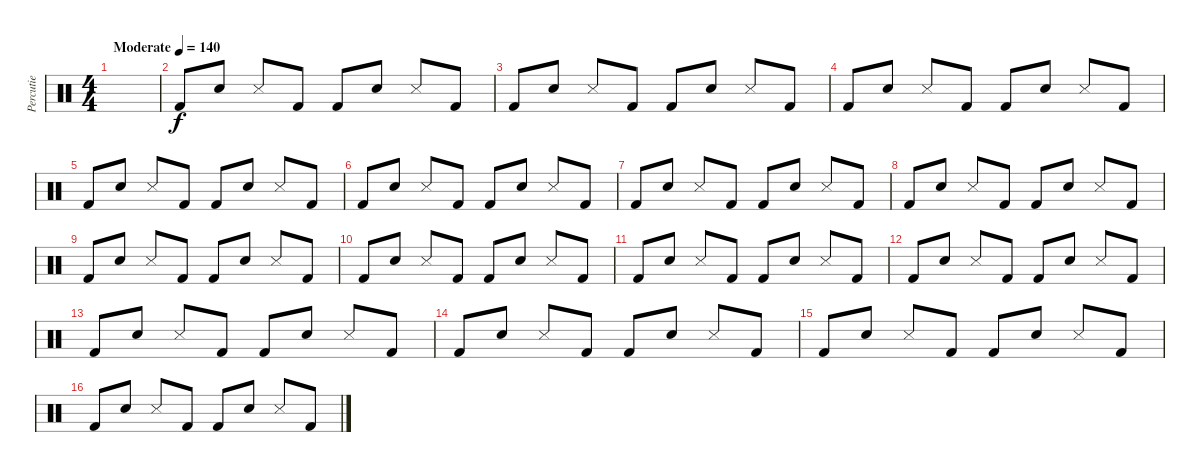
\track ("Percutie" "Percutie") {instrument percussion}
\staff {score}
\articulation defaults
\ts (4 4)
\tempo (140 "Moderate")
\clef neutral
\ks c
|
"Kick (hit) 2".8 "Electric Snare (hit)".8 "Snare (side stick) 3".8 "Kick (hit) 2".8 "Kick (hit) 2".8 "Electric Snare (hit)".8 "Snare (side stick) 3".8 "Kick (hit) 2".8 |
"Kick (hit) 2".8 "Electric Snare (hit)".8 "Snare (side stick) 3".8 "Kick (hit) 2".8 "Kick (hit) 2".8 "Electric Snare (hit)".8 "Snare (side stick) 3".8 "Kick (hit) 2".8 |
"Kick (hit) 2".8 "Electric Snare (hit)".8 "Snare (side stick) 3".8 "Kick (hit) 2".8 "Kick (hit) 2".8 "Electric Snare (hit)".8 "Snare (side stick) 3".8 "Kick (hit) 2".8 |
"Kick (hit) 2".8 "Electric Snare (hit)".8 "Snare (side stick) 3".8 "Kick (hit) 2".8 "Kick (hit) 2".8 "Electric Snare (hit)".8 "Snare (side stick) 3".8 "Kick (hit) 2".8 |
"Kick (hit) 2".8 "Electric Snare (hit)".8 "Snare (side stick) 3".8 "Kick (hit) 2".8 "Kick (hit) 2".8 "Electric Snare (hit)".8 "Snare (side stick) 3".8 "Kick (hit) 2".8 |
"Kick (hit) 2".8 "Electric Snare (hit)".8 "Snare (side stick) 3".8 "Kick (hit) 2".8 "Kick (hit) 2".8 "Electric Snare (hit)".8 "Snare (side stick) 3".8 "Kick (hit) 2".8 |
"Kick (hit) 2".8 "Electric Snare (hit)".8 "Snare (side stick) 3".8 "Kick (hit) 2".8 "Kick (hit) 2".8 "Electric Snare (hit)".8 "Snare (side stick) 3".8 "Kick (hit) 2".8 |
"Kick (hit) 2".8 "Electric Snare (hit)".8 "Snare (side stick) 3".8 "Kick (hit) 2".8 "Kick (hit) 2".8 "Electric Snare (hit)".8 "Snare (side stick) 3".8 "Kick (hit) 2".8 |
"Kick (hit) 2".8 "Electric Snare (hit)".8 "Snare (side stick) 3".8 "Kick (hit) 2".8 "Kick (hit) 2".8 "Electric Snare (hit)".8 "Snare (side stick) 3".8 "Kick (hit) 2".8 |
"Kick (hit) 2".8 "Electric Snare (hit)".8 "Snare (side stick) 3".8 "Kick (hit) 2".8 "Kick (hit) 2".8 "Electric Snare (hit)".8 "Snare (side stick) 3".8 "Kick (hit) 2".8 |
"Kick (hit) 2".8 "Electric Snare (hit)".8 "Snare (side stick) 3".8 "Kick (hit) 2".8 "Kick (hit) 2".8 "Electric Snare (hit)".8 "Snare (side stick) 3".8 "Kick (hit) 2".8 |
"Kick (hit) 2".8 "Electric Snare (hit)".8 "Snare (side stick) 3".8 "Kick (hit) 2".8 "Kick (hit) 2".8 "Electric Snare (hit)".8 "Snare (side stick) 3".8 "Kick (hit) 2".8 |
"Kick (hit) 2".8 "Electric Snare (hit)".8 "Snare (side stick) 3".8 "Kick (hit) 2".8 "Kick (hit) 2".8 "Electric Snare (hit)".8 "Snare (side stick) 3".8 "Kick (hit) 2".8 |
"Kick (hit) 2".8 "Electric Snare (hit)".8 "Snare (side stick) 3".8 "Kick (hit) 2".8 "Kick (hit) 2".8 "Electric Snare (hit)".8 "Snare (side stick) 3".8 "Kick (hit) 2".8 |
"Kick (hit) 2".8 "Electric Snare (hit)".8 "Snare (side stick) 3".8 "Kick (hit) 2".8 "Kick (hit) 2".8 "Electric Snare (hit)".8 "Snare (side stick) 3".8 "Kick (hit) 2".8
